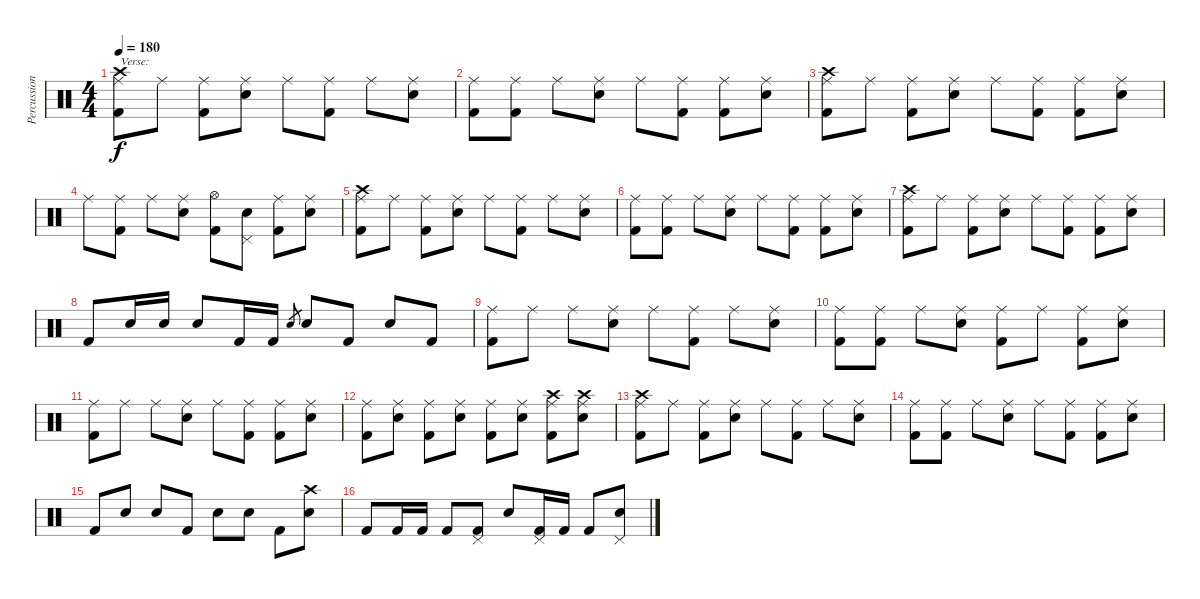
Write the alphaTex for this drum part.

\track ("Percussion" "Percussion") {instrument percussion}
\staff {score}
\articulation defaults
\ts (4 4)
\tempo 180
\clef neutral
\ks c
("Ride (middle)" "Crash high (hit)" "Kick (hit) 2").8{txt "Verse:" dy f} "Ride (middle)".8 ("Ride (middle)" "Kick (hit) 2").8 ("Ride (middle)" "Electric Snare (hit)").8 "Ride (middle)".8 ("Ride (middle)" "Kick (hit) 2").8 "Ride (middle)".8 ("Ride (middle)" "Electric Snare (hit)").8 |
("Ride (middle)" "Kick (hit) 2").8 ("Ride (middle)" "Kick (hit) 2").8 "Ride (middle)".8 ("Ride (middle)" "Electric Snare (hit)").8 "Ride (middle)".8 ("Ride (middle)" "Kick (hit) 2").8 ("Ride (middle)" "Kick (hit) 2").8 ("Ride (middle)" "Electric Snare (hit)").8 |
("Ride (middle)" "Crash high (hit)" "Kick (hit) 2").8 "Ride (middle)".8 ("Ride (middle)" "Kick (hit) 2").8 ("Ride (middle)" "Electric Snare (hit)").8 "Ride (middle)".8 ("Ride (middle)" "Kick (hit) 2").8 ("Ride (middle)" "Kick (hit) 2").8 ("Ride (middle)" "Electric Snare (hit)").8 |
"Ride (middle)".8 ("Ride (middle)" "Kick (hit) 2").8 "Ride (middle)".8 ("Ride (middle)" "Electric Snare (hit)").8 ("Hi-Hat (open)" "Kick (hit) 2").8 ("Pedal Hi-Hat (hit)" "Electric Snare (hit)").8 ("Ride (middle)" "Kick (hit) 2").8 ("Ride (middle)" "Electric Snare (hit)").8 |
("Ride (middle)" "Crash high (hit)" "Kick (hit) 2").8 "Ride (middle)".8 ("Ride (middle)" "Kick (hit) 2").8 ("Ride (middle)" "Electric Snare (hit)").8 "Ride (middle)".8 ("Ride (middle)" "Kick (hit) 2").8 "Ride (middle)".8 ("Ride (middle)" "Electric Snare (hit)").8 |
("Ride (middle)" "Kick (hit) 2").8 ("Ride (middle)" "Kick (hit) 2").8 "Ride (middle)".8 ("Ride (middle)" "Electric Snare (hit)").8 "Ride (middle)".8 ("Ride (middle)" "Kick (hit) 2").8 ("Ride (middle)" "Kick (hit) 2").8 ("Ride (middle)" "Electric Snare (hit)").8 |
("Ride (middle)" "Crash high (hit)" "Kick (hit) 2").8 "Ride (middle)".8 ("Ride (middle)" "Kick (hit) 2").8 ("Ride (middle)" "Electric Snare (hit)").8 "Ride (middle)".8 ("Ride (middle)" "Kick (hit) 2").8 ("Ride (middle)" "Kick (hit) 2").8 ("Ride (middle)" "Electric Snare (hit)").8 |
"Kick (hit) 2".8 "Electric Snare (hit)".16 "Electric Snare (hit)".16 "Electric Snare (hit)".8 "Kick (hit) 2".16 "Kick (hit) 2".16 "Electric Snare (hit)".8{gr} "Electric Snare (hit)".8 "Kick (hit) 2".8 "Electric Snare (hit)".8 "Kick (hit) 2".8 |
("Ride (middle)" "Kick (hit) 2").8 "Ride (middle)".8 "Ride (middle)".8 ("Ride (middle)" "Electric Snare (hit)").8 "Ride (middle)".8 ("Ride (middle)" "Kick (hit) 2").8 "Ride (middle)".8 ("Ride (middle)" "Electric Snare (hit)").8 |
("Ride (middle)" "Kick (hit) 2").8 ("Ride (middle)" "Kick (hit) 2").8 "Ride (middle)".8 ("Ride (middle)" "Electric Snare (hit)").8 ("Ride (middle)" "Kick (hit) 2").8 "Ride (middle)".8 ("Ride (middle)" "Kick (hit) 2").8 ("Ride (middle)" "Electric Snare (hit)").8 |
("Ride (middle)" "Kick (hit) 2").8 "Ride (middle)".8 "Ride (middle)".8 ("Ride (middle)" "Electric Snare (hit)").8 "Ride (middle)".8 ("Ride (middle)" "Kick (hit) 2").8 ("Ride (middle)" "Kick (hit) 2").8 ("Ride (middle)" "Electric Snare (hit)").8 |
("Ride (middle)" "Kick (hit) 2").8 ("Ride (middle)" "Electric Snare (hit)").8 ("Ride (middle)" "Kick (hit) 2").8 ("Ride (middle)" "Electric Snare (hit)").8 ("Ride (middle)" "Kick (hit) 2").8 ("Ride (middle)" "Electric Snare (hit)").8 ("Ride (middle)" "Crash high (hit)" "Kick (hit) 2").8 ("Ride (middle)" "Crash high (hit)" "Electric Snare (hit)").8 |
("Ride (middle)" "Crash high (hit)" "Kick (hit) 2").8 "Ride (middle)".8 ("Ride (middle)" "Kick (hit) 2").8 ("Ride (middle)" "Electric Snare (hit)").8 "Ride (middle)".8 ("Ride (middle)" "Kick (hit) 2").8 "Ride (middle)".8 ("Ride (middle)" "Electric Snare (hit)").8 |
("Ride (middle)" "Kick (hit) 2").8 ("Ride (middle)" "Kick (hit) 2").8 "Ride (middle)".8 ("Ride (middle)" "Electric Snare (hit)").8 "Ride (middle)".8 ("Ride (middle)" "Kick (hit) 2").8 ("Ride (middle)" "Kick (hit) 2").8 ("Ride (middle)" "Electric Snare (hit)").8 |
"Kick (hit) 2".8 "Electric Snare (hit)".8 "Electric Snare (hit)".8 "Kick (hit) 2".8 "Electric Snare (hit)".8 "Electric Snare (hit)".8 "Kick (hit) 2".8 ("Crash high (hit)" "Electric Snare (hit)").8 |
"Kick (hit) 2".8 "Kick (hit) 2".16 "Kick (hit) 2".16 "Kick (hit) 2".8 ("Pedal Hi-Hat (hit)" "Kick (hit) 2").8 "Electric Snare (hit)".8 ("Pedal Hi-Hat (hit)" "Kick (hit) 2").16 "Kick (hit) 2".16 "Kick (hit) 2".8 ("Pedal Hi-Hat (hit)" "Electric Snare (hit)").8
